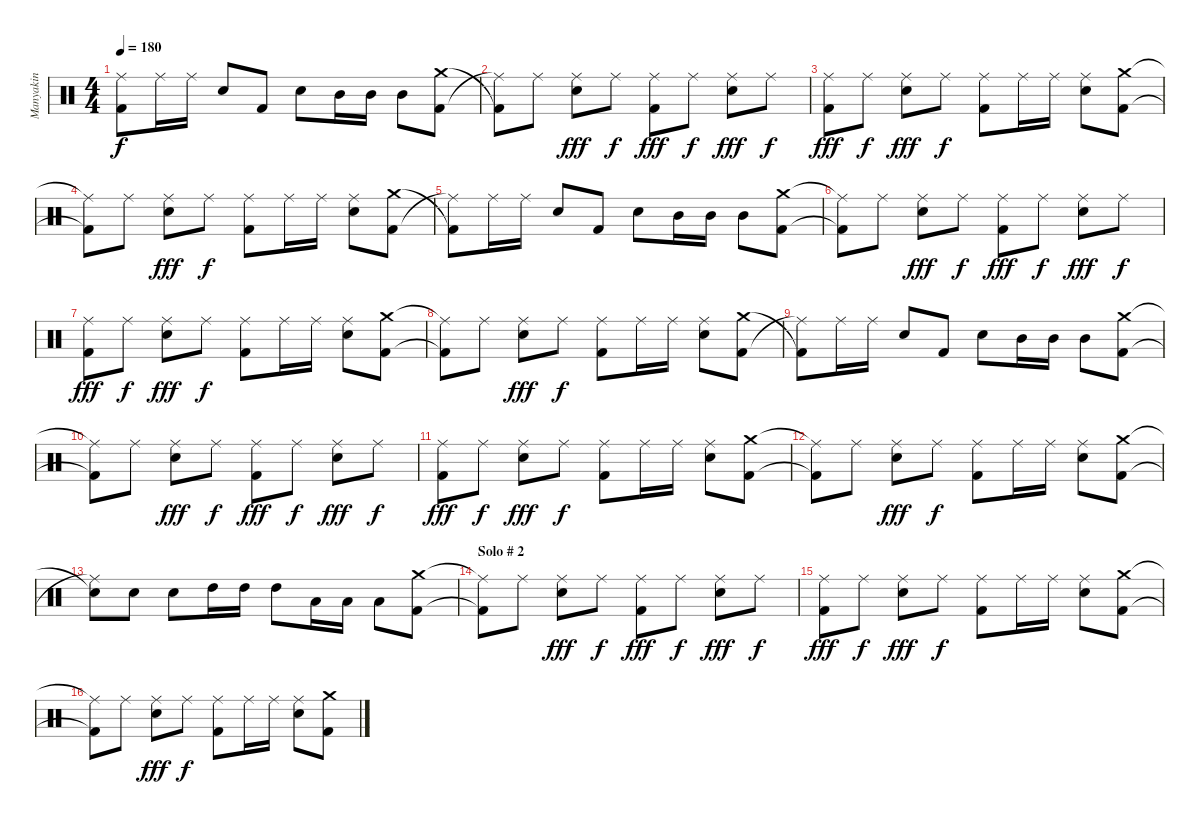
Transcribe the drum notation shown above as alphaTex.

\track ("Manyakin" "Manyakin") {instrument percussion}
\staff {score}
\articulation defaults
\ts (4 4)
\tempo 180
\clef neutral
\ks c
("Ride (middle)"{t} "Kick (hit) 2"{t}).8{dy f} "Ride (middle)".16 "Ride (middle)".16 "Snare (hit) 2".8 "Kick (hit) 2".8 "Snare (hit) 2".8 "Mid Tom (hit)".16 "Mid Tom (hit)".16 "Mid Tom (hit)".8 ("Kick (hit) 2" "Crash medium (hit)").8 |
("Ride (middle)"{t} "Kick (hit) 2"{t}).8 "Ride (middle)".8 ("Snare (hit) 2" "Ride (middle)").8{dy fff} "Ride (middle)".8{dy f} ("Kick (hit) 2" "Ride (middle)").8{dy fff} "Ride (middle)".8{dy f} ("Snare (hit) 2" "Ride (middle)").8{dy fff} "Ride (middle)".8{dy f} |
("Kick (hit) 2" "Ride (middle)").8{dy fff} "Ride (middle)".8{dy f} ("Snare (hit) 2" "Ride (middle)").8{dy fff} "Ride (middle)".8{dy f} ("Kick (hit) 2" "Ride (middle)").8 "Ride (middle)".16 "Ride (middle)".16 ("Snare (hit) 2" "Ride (middle)").8 ("Kick (hit) 2" "Crash medium (hit)").8 |
("Kick (hit) 2"{t} "Ride (middle)"{t}).8 "Ride (middle)".8 ("Snare (hit) 2" "Ride (middle)").8{dy fff} "Ride (middle)".8{dy f} ("Kick (hit) 2" "Ride (middle)").8 "Ride (middle)".16 "Ride (middle)".16 ("Snare (hit) 2" "Ride (middle)").8 ("Kick (hit) 2" "Crash medium (hit)").8 |
("Ride (middle)"{t} "Kick (hit) 2"{t}).8 "Ride (middle)".16 "Ride (middle)".16 "Snare (hit) 2".8 "Kick (hit) 2".8 "Snare (hit) 2".8 "Mid Tom (hit)".16 "Mid Tom (hit)".16 "Mid Tom (hit)".8 ("Kick (hit) 2" "Crash medium (hit)").8 |
("Kick (hit) 2"{t} "Ride (middle)"{t}).8 "Ride (middle)".8 ("Snare (hit) 2" "Ride (middle)").8{dy fff} "Ride (middle)".8{dy f} ("Kick (hit) 2" "Ride (middle)").8{dy fff} "Ride (middle)".8{dy f} ("Snare (hit) 2" "Ride (middle)").8{dy fff} "Ride (middle)".8{dy f} |
("Kick (hit) 2" "Ride (middle)").8{dy fff} "Ride (middle)".8{dy f} ("Snare (hit) 2" "Ride (middle)").8{dy fff} "Ride (middle)".8{dy f} ("Kick (hit) 2" "Ride (middle)").8 "Ride (middle)".16 "Ride (middle)".16 ("Snare (hit) 2" "Ride (middle)").8 ("Kick (hit) 2" "Crash medium (hit)").8 |
("Kick (hit) 2"{t} "Ride (middle)"{t}).8 "Ride (middle)".8 ("Snare (hit) 2" "Ride (middle)").8{dy fff} "Ride (middle)".8{dy f} ("Kick (hit) 2" "Ride (middle)").8 "Ride (middle)".16 "Ride (middle)".16 ("Snare (hit) 2" "Ride (middle)").8 ("Kick (hit) 2" "Crash medium (hit)").8 |
("Ride (middle)"{t} "Kick (hit) 2"{t}).8 "Ride (middle)".16 "Ride (middle)".16 "Snare (hit) 2".8 "Kick (hit) 2".8 "Snare (hit) 2".8 "Mid Tom (hit)".16 "Mid Tom (hit)".16 "Mid Tom (hit)".8 ("Kick (hit) 2" "Crash medium (hit)").8 |
("Kick (hit) 2"{t} "Ride (middle)"{t}).8 "Ride (middle)".8 ("Snare (hit) 2" "Ride (middle)").8{dy fff} "Ride (middle)".8{dy f} ("Kick (hit) 2" "Ride (middle)").8{dy fff} "Ride (middle)".8{dy f} ("Snare (hit) 2" "Ride (middle)").8{dy fff} "Ride (middle)".8{dy f} |
("Kick (hit) 2" "Ride (middle)").8{dy fff} "Ride (middle)".8{dy f} ("Snare (hit) 2" "Ride (middle)").8{dy fff} "Ride (middle)".8{dy f} ("Kick (hit) 2" "Ride (middle)").8 "Ride (middle)".16 "Ride (middle)".16 ("Snare (hit) 2" "Ride (middle)").8 ("Kick (hit) 2" "Crash medium (hit)").8 |
("Kick (hit) 2"{t} "Ride (middle)"{t}).8 "Ride (middle)".8 ("Snare (hit) 2" "Ride (middle)").8{dy fff} "Ride (middle)".8{dy f} ("Kick (hit) 2" "Ride (middle)").8 "Ride (middle)".16 "Ride (middle)".16 ("Snare (hit) 2" "Ride (middle)").8 ("Kick (hit) 2" "Crash medium (hit)").8 |
("Ride (middle)"{t} "Snare (hit)"{t}).8 "Snare (hit) 2".8 "Snare (hit) 2".8 "High Tom (hit)".16 "High Tom (hit)".16 "High Tom (hit)".8 "Low Tom (hit)".16 "Low Tom (hit)".16 "Low Tom (hit)".8 ("Kick (hit) 2" "Crash medium (hit)").8 |
\section ("" "Solo # 2")
("Kick (hit) 2"{t} "Ride (middle)"{t}).8 "Ride (middle)".8 ("Snare (hit) 2" "Ride (middle)").8{dy fff} "Ride (middle)".8{dy f} ("Kick (hit) 2" "Ride (middle)").8{dy fff} "Ride (middle)".8{dy f} ("Snare (hit) 2" "Ride (middle)").8{dy fff} "Ride (middle)".8{dy f} |
("Kick (hit) 2" "Ride (middle)").8{dy fff} "Ride (middle)".8{dy f} ("Snare (hit) 2" "Ride (middle)").8{dy fff} "Ride (middle)".8{dy f} ("Kick (hit) 2" "Ride (middle)").8 "Ride (middle)".16 "Ride (middle)".16 ("Snare (hit) 2" "Ride (middle)").8 ("Kick (hit) 2" "Crash medium (hit)").8 |
("Kick (hit) 2"{t} "Ride (middle)"{t}).8 "Ride (middle)".8 ("Snare (hit) 2" "Ride (middle)").8{dy fff} "Ride (middle)".8{dy f} ("Kick (hit) 2" "Ride (middle)").8 "Ride (middle)".16 "Ride (middle)".16 ("Snare (hit) 2" "Ride (middle)").8 ("Kick (hit) 2" "Crash medium (hit)").8
